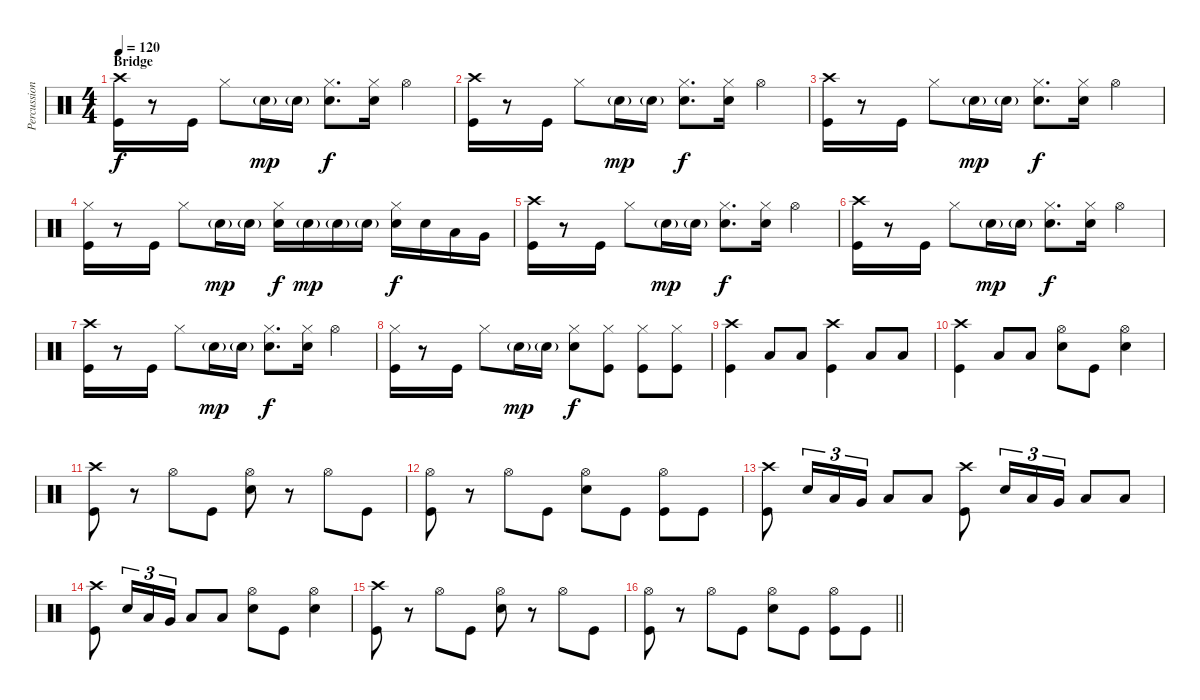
\track ("Percussion" "Percussion") {instrument percussion}
\staff {score}
\articulation defaults
\ts (4 4)
\section ("" "Bridge")
\tempo 120
\clef neutral
\ks c
("Crash high (hit)" "Kick (hit)").16{dy f} r.8 "Kick (hit)".16 "Hi-Hat (closed)".8 "Electric Snare (hit)"{g}.16{dy mp} "Electric Snare (hit)"{g}.16 ("Hi-Hat (closed)" "Electric Snare (hit)").8{d dy f} ("Hi-Hat (closed)" "Electric Snare (hit)").16 "Hi-Hat (open)".4 |
("Crash high (hit)" "Kick (hit)").16 r.8 "Kick (hit)".16 "Hi-Hat (closed)".8 "Electric Snare (hit)"{g}.16{dy mp} "Electric Snare (hit)"{g}.16 ("Hi-Hat (closed)" "Electric Snare (hit)").8{d dy f} ("Hi-Hat (closed)" "Electric Snare (hit)").16 "Hi-Hat (open)".4 |
("Crash high (hit)" "Kick (hit)").16 r.8 "Kick (hit)".16 "Hi-Hat (closed)".8 "Electric Snare (hit)"{g}.16{dy mp} "Electric Snare (hit)"{g}.16 ("Hi-Hat (closed)" "Electric Snare (hit)").8{d dy f} ("Hi-Hat (closed)" "Electric Snare (hit)").16 "Hi-Hat (open)".4 |
("Hi-Hat (closed)" "Kick (hit)").16 r.8 "Kick (hit)".16 "Hi-Hat (closed)".8 "Electric Snare (hit)"{g}.16{dy mp} "Electric Snare (hit)"{g}.16 ("Hi-Hat (closed)" "Electric Snare (hit)").16{dy f} "Electric Snare (hit)"{g}.16{dy mp} "Electric Snare (hit)"{g}.16 "Electric Snare (hit)"{g}.16 ("Hi-Hat (closed)" "Electric Snare (hit)").16{dy f} "Electric Snare (hit)".16 "Low Tom (hit)".16 "Very Low Tom (hit)".16 |
("Crash high (hit)" "Kick (hit)").16 r.8 "Kick (hit)".16 "Hi-Hat (closed)".8 "Electric Snare (hit)"{g}.16{dy mp} "Electric Snare (hit)"{g}.16 ("Hi-Hat (closed)" "Electric Snare (hit)").8{d dy f} ("Hi-Hat (closed)" "Electric Snare (hit)").16 "Hi-Hat (open)".4 |
("Crash high (hit)" "Kick (hit)").16 r.8 "Kick (hit)".16 "Hi-Hat (closed)".8 "Electric Snare (hit)"{g}.16{dy mp} "Electric Snare (hit)"{g}.16 ("Hi-Hat (closed)" "Electric Snare (hit)").8{d dy f} ("Hi-Hat (closed)" "Electric Snare (hit)").16 "Hi-Hat (open)".4 |
("Crash high (hit)" "Kick (hit)").16 r.8 "Kick (hit)".16 "Hi-Hat (closed)".8 "Electric Snare (hit)"{g}.16{dy mp} "Electric Snare (hit)"{g}.16 ("Hi-Hat (closed)" "Electric Snare (hit)").8{d dy f} ("Hi-Hat (closed)" "Electric Snare (hit)").16 "Hi-Hat (open)".4 |
("Hi-Hat (closed)" "Kick (hit)").16 r.8 "Kick (hit)".16 "Hi-Hat (closed)".8 "Electric Snare (hit)"{g}.16{dy mp} "Electric Snare (hit)"{g}.16 ("Hi-Hat (closed)" "Electric Snare (hit)").8{dy f} ("Hi-Hat (closed)" "Kick (hit)").8 ("Hi-Hat (closed)" "Kick (hit)").8 ("Hi-Hat (closed)" "Kick (hit)").8 |
("Crash high (hit)" "Kick (hit)").4 "Low Floor Tom (hit)".8 "Low Floor Tom (hit)".8 ("Crash high (hit)" "Kick (hit)").4 "Low Floor Tom (hit)".8 "Low Floor Tom (hit)".8 |
("Crash high (hit)" "Kick (hit)").4 "Low Floor Tom (hit)".8 "Low Floor Tom (hit)".8 ("Hi-Hat (open)" "Electric Snare (hit)").8 "Kick (hit)".8 ("Hi-Hat (open)" "Electric Snare (hit)").4 |
("Crash high (hit)" "Kick (hit)").8 r.8 "Hi-Hat (open)".8 "Kick (hit)".8 ("Hi-Hat (open)" "Electric Snare (hit)").8 r.8 "Hi-Hat (open)".8 "Kick (hit)".8 |
("Hi-Hat (open)" "Kick (hit)").8 r.8 "Hi-Hat (open)".8 "Kick (hit)".8 ("Hi-Hat (open)" "Electric Snare (hit)").8 "Kick (hit)".8 ("Hi-Hat (open)" "Kick (hit)").8 "Kick (hit)".8 |
("Crash high (hit)" "Kick (hit)").8 "Electric Snare (hit)".16{tu (3 2)} "Low Tom (hit)".16{tu (3 2)} "Very Low Tom (hit)".16{tu (3 2)} "Low Floor Tom (hit)".8 "Low Floor Tom (hit)".8 ("Crash high (hit)" "Kick (hit)").8 "Electric Snare (hit)".16{tu (3 2)} "Low Tom (hit)".16{tu (3 2)} "Very Low Tom (hit)".16{tu (3 2)} "Low Floor Tom (hit)".8 "Low Floor Tom (hit)".8 |
("Crash high (hit)" "Kick (hit)").8 "Electric Snare (hit)".16{tu (3 2)} "Low Tom (hit)".16{tu (3 2)} "Very Low Tom (hit)".16{tu (3 2)} "Low Floor Tom (hit)".8 "Low Floor Tom (hit)".8 ("Hi-Hat (open)" "Electric Snare (hit)").8 "Kick (hit)".8 ("Hi-Hat (open)" "Electric Snare (hit)").4 |
("Crash high (hit)" "Kick (hit)").8 r.8 "Hi-Hat (open)".8 "Kick (hit)".8 ("Hi-Hat (open)" "Electric Snare (hit)").8 r.8 "Hi-Hat (open)".8 "Kick (hit)".8 |
\barLineRight lightlight
("Hi-Hat (open)" "Kick (hit)").8 r.8 "Hi-Hat (open)".8 "Kick (hit)".8 ("Hi-Hat (open)" "Electric Snare (hit)").8 "Kick (hit)".8 ("Hi-Hat (open)" "Kick (hit)").8 "Kick (hit)".8
